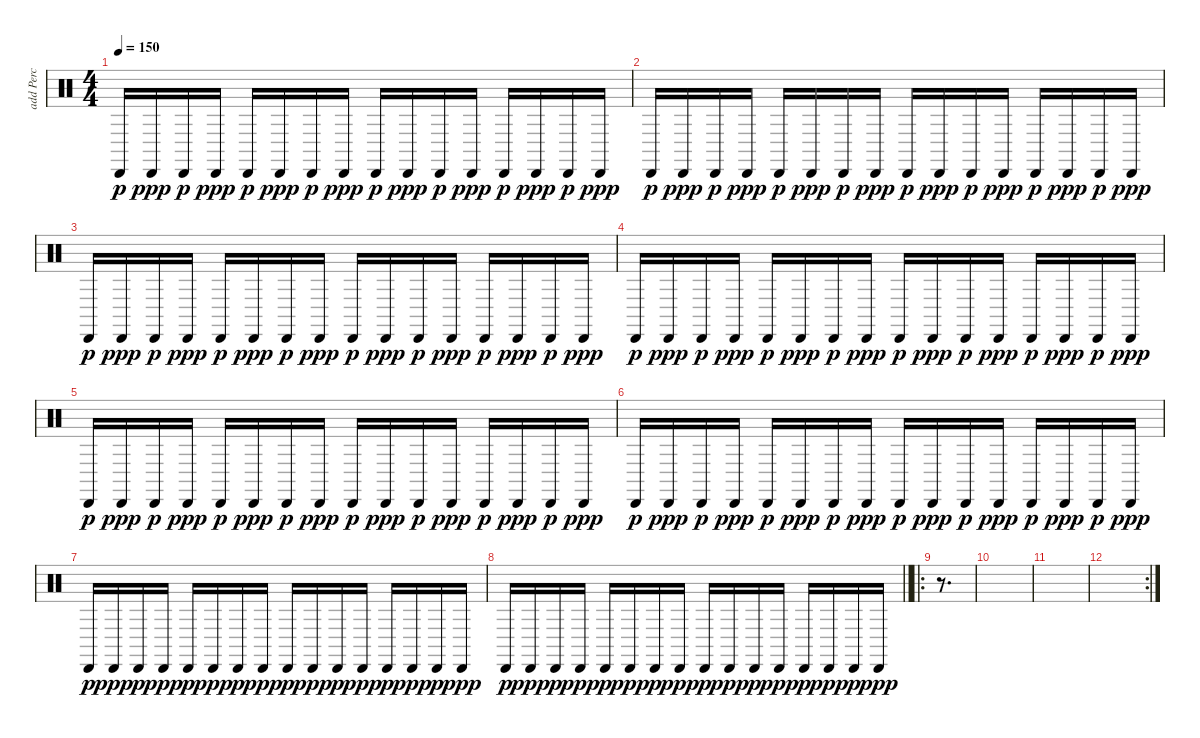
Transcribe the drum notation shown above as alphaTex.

\track ("add Perc" "add Perc") {instrument percussion}
\staff {score}
\articulation defaults
\ts (4 4)
\tempo 150
\clef neutral
\ks c "Cabasa (hit)".16{dy p} "Cabasa (hit)".16{dy ppp} "Cabasa (hit)".16{dy p} "Cabasa (hit)".16{dy ppp} "Cabasa (hit)".16{dy p} "Cabasa (hit)".16{dy ppp} "Cabasa (hit)".16{dy p} "Cabasa (hit)".16{dy ppp} "Cabasa (hit)".16{dy p} "Cabasa (hit)".16{dy ppp} "Cabasa (hit)".16{dy p} "Cabasa (hit)".16{dy ppp} "Cabasa (hit)".16{dy p} "Cabasa (hit)".16{dy ppp} "Cabasa (hit)".16{dy p} "Cabasa (hit)".16{dy ppp}
|
"Cabasa (hit)".16{dy p} "Cabasa (hit)".16{dy ppp} "Cabasa (hit)".16{dy p} "Cabasa (hit)".16{dy ppp} "Cabasa (hit)".16{dy p} "Cabasa (hit)".16{dy ppp} "Cabasa (hit)".16{dy p} "Cabasa (hit)".16{dy ppp} "Cabasa (hit)".16{dy p} "Cabasa (hit)".16{dy ppp} "Cabasa (hit)".16{dy p} "Cabasa (hit)".16{dy ppp} "Cabasa (hit)".16{dy p} "Cabasa (hit)".16{dy ppp} "Cabasa (hit)".16{dy p} "Cabasa (hit)".16{dy ppp} |
"Cabasa (hit)".16{dy p} "Cabasa (hit)".16{dy ppp} "Cabasa (hit)".16{dy p} "Cabasa (hit)".16{dy ppp} "Cabasa (hit)".16{dy p} "Cabasa (hit)".16{dy ppp} "Cabasa (hit)".16{dy p} "Cabasa (hit)".16{dy ppp} "Cabasa (hit)".16{dy p} "Cabasa (hit)".16{dy ppp} "Cabasa (hit)".16{dy p} "Cabasa (hit)".16{dy ppp} "Cabasa (hit)".16{dy p} "Cabasa (hit)".16{dy ppp} "Cabasa (hit)".16{dy p} "Cabasa (hit)".16{dy ppp} |
"Cabasa (hit)".16{dy p} "Cabasa (hit)".16{dy ppp} "Cabasa (hit)".16{dy p} "Cabasa (hit)".16{dy ppp} "Cabasa (hit)".16{dy p} "Cabasa (hit)".16{dy ppp} "Cabasa (hit)".16{dy p} "Cabasa (hit)".16{dy ppp} "Cabasa (hit)".16{dy p} "Cabasa (hit)".16{dy ppp} "Cabasa (hit)".16{dy p} "Cabasa (hit)".16{dy ppp} "Cabasa (hit)".16{dy p} "Cabasa (hit)".16{dy ppp} "Cabasa (hit)".16{dy p} "Cabasa (hit)".16{dy ppp} |
"Cabasa (hit)".16{dy p} "Cabasa (hit)".16{dy ppp} "Cabasa (hit)".16{dy p} "Cabasa (hit)".16{dy ppp} "Cabasa (hit)".16{dy p} "Cabasa (hit)".16{dy ppp} "Cabasa (hit)".16{dy p} "Cabasa (hit)".16{dy ppp} "Cabasa (hit)".16{dy p} "Cabasa (hit)".16{dy ppp} "Cabasa (hit)".16{dy p} "Cabasa (hit)".16{dy ppp} "Cabasa (hit)".16{dy p} "Cabasa (hit)".16{dy ppp} "Cabasa (hit)".16{dy p} "Cabasa (hit)".16{dy ppp} |
"Cabasa (hit)".16{dy p} "Cabasa (hit)".16{dy ppp} "Cabasa (hit)".16{dy p} "Cabasa (hit)".16{dy ppp} "Cabasa (hit)".16{dy p} "Cabasa (hit)".16{dy ppp} "Cabasa (hit)".16{dy p} "Cabasa (hit)".16{dy ppp} "Cabasa (hit)".16{dy p} "Cabasa (hit)".16{dy ppp} "Cabasa (hit)".16{dy p} "Cabasa (hit)".16{dy ppp} "Cabasa (hit)".16{dy p} "Cabasa (hit)".16{dy ppp} "Cabasa (hit)".16{dy p} "Cabasa (hit)".16{dy ppp} |
"Cabasa (hit)".16{dy p} "Cabasa (hit)".16{dy ppp} "Cabasa (hit)".16{dy p} "Cabasa (hit)".16{dy ppp} "Cabasa (hit)".16{dy p} "Cabasa (hit)".16{dy ppp} "Cabasa (hit)".16{dy p} "Cabasa (hit)".16{dy ppp} "Cabasa (hit)".16{dy p} "Cabasa (hit)".16{dy ppp} "Cabasa (hit)".16{dy p} "Cabasa (hit)".16{dy ppp} "Cabasa (hit)".16{dy p} "Cabasa (hit)".16{dy ppp} "Cabasa (hit)".16{dy p} "Cabasa (hit)".16{dy ppp} |
\barLineRight lightlight "Cabasa (hit)".16{dy p} "Cabasa (hit)".16{dy ppp} "Cabasa (hit)".16{dy p} "Cabasa (hit)".16{dy ppp} "Cabasa (hit)".16{dy p} "Cabasa (hit)".16{dy ppp} "Cabasa (hit)".16{dy p} "Cabasa (hit)".16{dy ppp} "Cabasa (hit)".16{dy p} "Cabasa (hit)".16{dy ppp} "Cabasa (hit)".16{dy p} "Cabasa (hit)".16{dy ppp} "Cabasa (hit)".16{dy p} "Cabasa (hit)".16{dy ppp} "Cabasa (hit)".16{dy p} "Cabasa (hit)".16{dy ppp}
|
\ro
r.8{d} |
|
|
\rc 2
